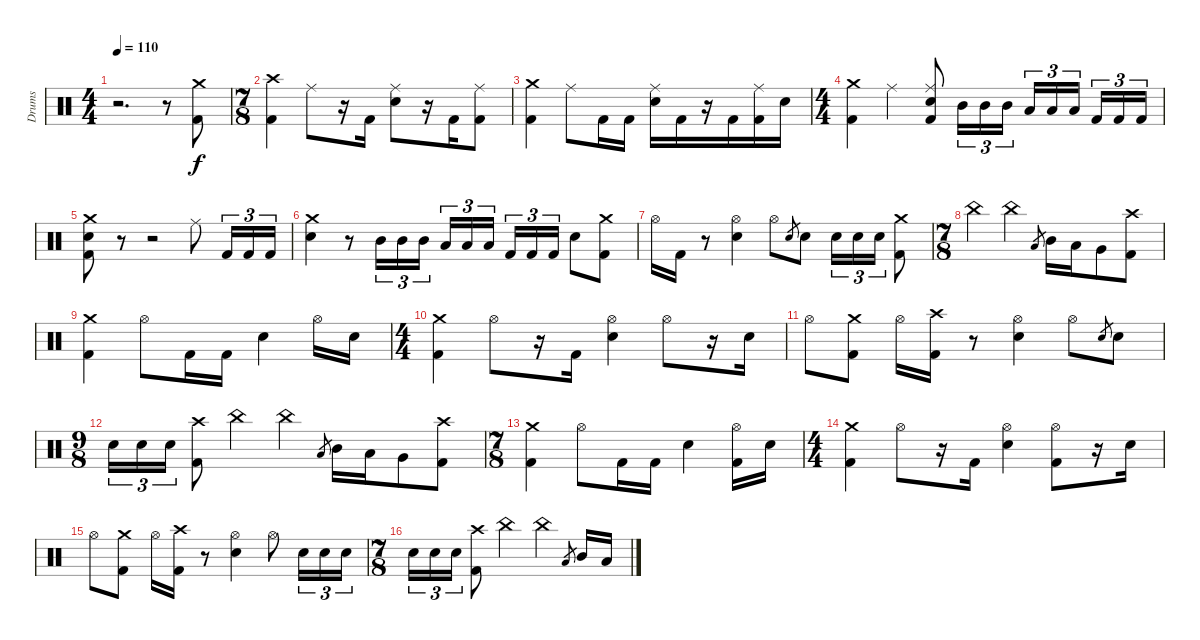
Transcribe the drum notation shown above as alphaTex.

\track ("Drums" "Drums") {instrument percussion}
\staff {score}
\articulation defaults
\ts (4 4)
\tempo 110
\clef neutral
\ks c
r.2{d dy f} r.8 ("Crash medium (hit)" "Kick (hit) 2").8 |
\ts (7 8)
("Crash high (hit)" "Kick (hit) 2").4 "Ride (middle)".8 r.16 "Kick (hit) 2".16 ("Ride (middle)" "Electric Snare (hit)").8 r.16 "Kick (hit) 2".16 ("Ride (middle)" "Kick (hit) 2").8 |
("Crash medium (hit)" "Kick (hit) 2").4 "Ride (middle)".8 "Kick (hit) 2".16 "Kick (hit) 2".16 ("Ride (middle)" "Electric Snare (hit)").16 "Kick (hit) 2".16 r.16 "Kick (hit) 2".16 ("Ride (middle)" "Kick (hit) 2").16 "Electric Snare (hit)".16 |
\ts (4 4)
("Crash medium (hit)" "Kick (hit) 2").4 "Ride (middle)".4 ("Ride (middle)" "Electric Snare (hit)" "Kick (hit) 2").8 "Mid Tom (hit)".16{tu (3 2)} "Mid Tom (hit)".16{tu (3 2)} "Mid Tom (hit)".16{tu (3 2)} "Low Tom (hit)".16{tu (3 2)} "Low Tom (hit)".16{tu (3 2)} "Low Tom (hit)".16{tu (3 2) beam splitsecondary} "Kick (hit) 2".16{tu (3 2)} "Kick (hit) 2".16{tu (3 2)} "Kick (hit) 2".16{tu (3 2)} |
("Crash medium (hit)" "Electric Snare (hit)" "Kick (hit) 2").8 r.8 r.2 "Ride (middle)".8 "Kick (hit) 2".16{tu (3 2)} "Kick (hit) 2".16{tu (3 2)} "Kick (hit) 2".16{tu (3 2)} |
("Crash medium (hit)" "Electric Snare (hit)").4 r.8 "Mid Tom (hit)".16{tu (3 2)} "Mid Tom (hit)".16{tu (3 2)} "Mid Tom (hit)".16{tu (3 2)} "Low Tom (hit)".16{tu (3 2)} "Low Tom (hit)".16{tu (3 2)} "Low Tom (hit)".16{tu (3 2) beam splitsecondary} "Kick (hit) 2".16{tu (3 2)} "Kick (hit) 2".16{tu (3 2)} "Kick (hit) 2".16{tu (3 2)} "Electric Snare (hit)".8 ("Crash medium (hit)" "Kick (hit) 2").8 |
"Hi-Hat (open)".16 "Kick (hit) 2".16 r.8 ("Hi-Hat (open)" "Electric Snare (hit)").4 "Hi-Hat (open)".8 "Electric Snare (hit)".8{gr} "Electric Snare (hit)".8 "Electric Snare (hit)".16{tu (3 2)} "Electric Snare (hit)".16{tu (3 2)} "Electric Snare (hit)".16{tu (3 2)} ("Crash medium (hit)" "Kick (hit) 2").8 |
\ts (7 8)
"China (hit)".4 "China (hit)".4 "Low Tom (hit)".8{gr} "Mid Tom (hit)".16 "Low Tom (hit)".16 "Very Low Tom (hit)".8 ("Crash high (hit)" "Kick (hit) 2").8 |
("Crash medium (hit)" "Kick (hit) 2").4 "Hi-Hat (open)".8 "Kick (hit) 2".16 "Kick (hit) 2".16 "Electric Snare (hit)".4 "Hi-Hat (open)".16 "Electric Snare (hit)".16 |
\ts (4 4)
("Crash medium (hit)" "Kick (hit) 2").4 "Hi-Hat (open)".8 r.16 "Kick (hit) 2".16 ("Hi-Hat (open)" "Electric Snare (hit)").4 "Hi-Hat (open)".8 r.16 "Electric Snare (hit)".16 |
"Hi-Hat (open)".8 ("Crash medium (hit)" "Kick (hit) 2").8 "Hi-Hat (open)".16 ("Crash high (hit)" "Kick (hit) 2").16 r.8 ("Hi-Hat (open)" "Electric Snare (hit)").4 "Hi-Hat (open)".8 "Electric Snare (hit)".8{gr} "Electric Snare (hit)".8 |
\ts (9 8)
"Electric Snare (hit)".16{tu (3 2)} "Electric Snare (hit)".16{tu (3 2)} "Electric Snare (hit)".16{tu (3 2)} ("Crash high (hit)" "Kick (hit) 2").8 "China (hit)".4 "China (hit)".4 "Low Tom (hit)".8{gr} "Mid Tom (hit)".16 "Low Tom (hit)".16 "Very Low Tom (hit)".8 ("Crash high (hit)" "Kick (hit) 2").8 |
\ts (7 8)
("Crash medium (hit)" "Kick (hit) 2").4 "Hi-Hat (open)".8 "Kick (hit) 2".16 "Kick (hit) 2".16 "Electric Snare (hit)".4 ("Hi-Hat (open)" "Kick (hit) 2").16 "Electric Snare (hit)".16 |
\ts (4 4)
("Crash medium (hit)" "Kick (hit) 2").4 "Hi-Hat (open)".8 r.16 "Kick (hit) 2".16 ("Hi-Hat (open)" "Electric Snare (hit)").4 ("Hi-Hat (open)" "Kick (hit) 2").8 r.16 "Electric Snare (hit)".16 |
"Hi-Hat (open)".8 ("Crash medium (hit)" "Kick (hit) 2").8 "Hi-Hat (open)".16 ("Crash high (hit)" "Kick (hit) 2").16 r.8 ("Hi-Hat (open)" "Electric Snare (hit)").4 "Hi-Hat (open)".8 "Electric Snare (hit)".16{tu (3 2)} "Electric Snare (hit)".16{tu (3 2)} "Electric Snare (hit)".16{tu (3 2)} |
\ts (7 8)
"Electric Snare (hit)".16{tu (3 2)} "Electric Snare (hit)".16{tu (3 2)} "Electric Snare (hit)".16{tu (3 2)} ("Crash high (hit)" "Kick (hit) 2").8 "China (hit)".4 "China (hit)".4 "Low Tom (hit)".8{gr} "Mid Tom (hit)".16 "Low Tom (hit)".16
